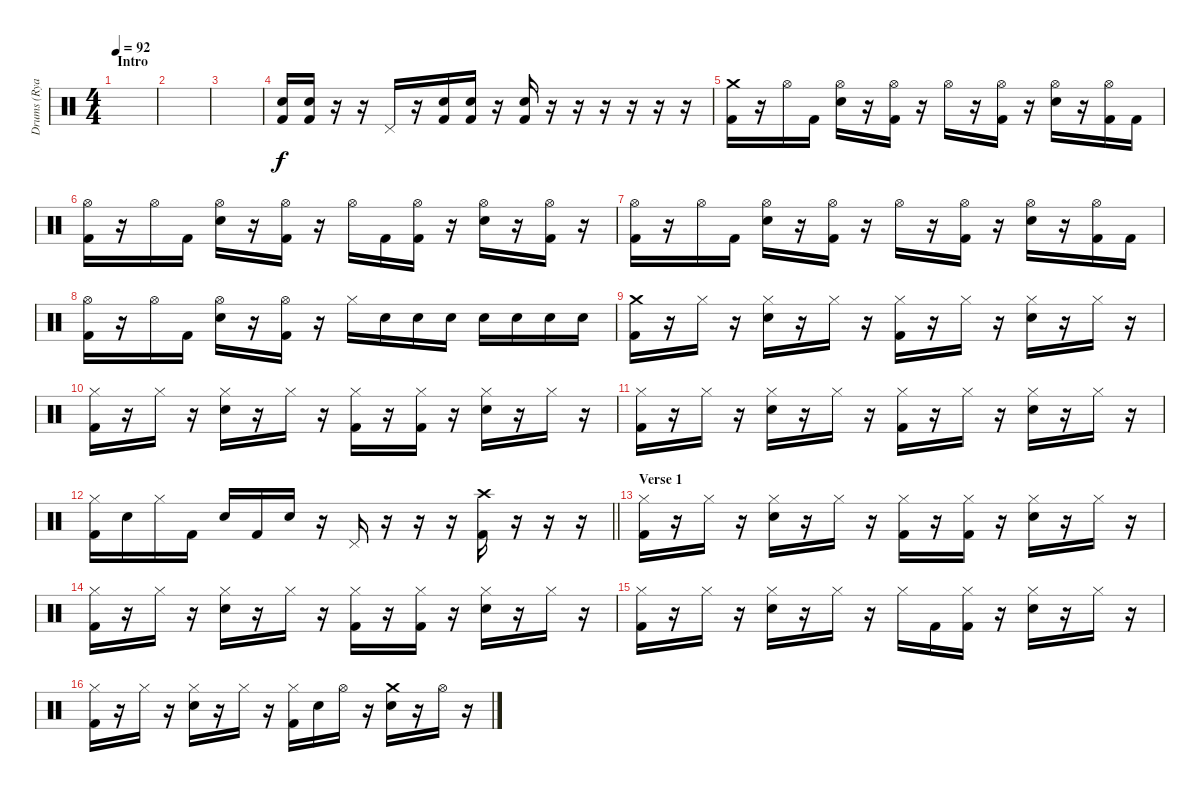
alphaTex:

\track ("Drums (Ryan Vikedal)" "Drums (Rya") {instrument percussion}
\staff {score}
\articulation defaults
\ts (4 4)
\section ("" "Intro")
\tempo 92
\clef neutral
\ks c
|
|
|
("Snare (hit) 2" "Kick (hit) 2").16 ("Snare (hit) 2" "Kick (hit) 2").16 r.16 r.16 "Pedal Hi-Hat (hit)".16 r.16 ("Snare (hit) 2" "Kick (hit) 2").16 ("Snare (hit) 2" "Kick (hit) 2").16 r.16 ("Snare (hit) 2" "Kick (hit) 2").16 r.16 r.16 r.16 r.16 r.16 r.16 |
("Crash medium (hit)" "Kick (hit) 2").16 r.16 "Hi-Hat (open)".16 "Kick (hit) 2".16 ("Hi-Hat (open)" "Snare (hit) 2").16 r.16 ("Hi-Hat (open)" "Kick (hit) 2").16 r.16 "Hi-Hat (open)".16 r.16 ("Hi-Hat (open)" "Kick (hit) 2").16 r.16 ("Hi-Hat (open)" "Snare (hit) 2").16 r.16 ("Hi-Hat (open)" "Kick (hit) 2").16 "Kick (hit) 2".16 |
("Hi-Hat (open)" "Kick (hit) 2").16 r.16 "Hi-Hat (open)".16 "Kick (hit) 2".16 ("Hi-Hat (open)" "Snare (hit) 2").16 r.16 ("Hi-Hat (open)" "Kick (hit) 2").16 r.16 "Hi-Hat (open)".16 "Kick (hit) 2".16 ("Hi-Hat (open)" "Kick (hit) 2").16 r.16 ("Hi-Hat (open)" "Snare (hit) 2").16 r.16 ("Hi-Hat (open)" "Kick (hit) 2").16 r.16 |
("Hi-Hat (open)" "Kick (hit) 2").16 r.16 "Hi-Hat (open)".16 "Kick (hit) 2".16 ("Hi-Hat (open)" "Snare (hit) 2").16 r.16 ("Hi-Hat (open)" "Kick (hit) 2").16 r.16 "Hi-Hat (open)".16 r.16 ("Hi-Hat (open)" "Kick (hit) 2").16 r.16 ("Hi-Hat (open)" "Snare (hit) 2").16 r.16 ("Hi-Hat (open)" "Kick (hit) 2").16 "Kick (hit) 2".16 |
("Hi-Hat (open)" "Kick (hit) 2").16 r.16 "Hi-Hat (open)".16 "Kick (hit) 2".16 ("Hi-Hat (open)" "Snare (hit) 2").16 r.16 ("Hi-Hat (open)" "Kick (hit) 2").16 r.16 "Hi-Hat (closed)".16 "Snare (hit) 2".16 "Snare (hit) 2".16 "Snare (hit) 2".16 "Snare (hit) 2".16 "Snare (hit) 2".16 "Snare (hit) 2".16 "Snare (hit) 2".16 |
("Crash medium (hit)" "Kick (hit) 2").16 r.16 "Hi-Hat (closed)".16 r.16 ("Hi-Hat (closed)" "Snare (hit) 2").16 r.16 "Hi-Hat (closed)".16 r.16 ("Hi-Hat (closed)" "Kick (hit) 2").16 r.16 "Hi-Hat (closed)".16 r.16 ("Hi-Hat (closed)" "Snare (hit) 2").16 r.16 "Hi-Hat (closed)".16 r.16 |
("Hi-Hat (closed)" "Kick (hit) 2").16 r.16 "Hi-Hat (closed)".16 r.16 ("Hi-Hat (closed)" "Snare (hit) 2").16 r.16 "Hi-Hat (closed)".16 r.16 ("Hi-Hat (closed)" "Kick (hit) 2").16 r.16 ("Hi-Hat (closed)" "Kick (hit) 2").16 r.16 ("Hi-Hat (closed)" "Snare (hit) 2").16 r.16 "Hi-Hat (closed)".16 r.16 |
("Hi-Hat (closed)" "Kick (hit) 2").16 r.16 "Hi-Hat (closed)".16 r.16 ("Hi-Hat (closed)" "Snare (hit) 2").16 r.16 "Hi-Hat (closed)".16 r.16 ("Hi-Hat (closed)" "Kick (hit) 2").16 r.16 "Hi-Hat (closed)".16 r.16 ("Hi-Hat (closed)" "Snare (hit) 2").16 r.16 "Hi-Hat (closed)".16 r.16 |
\barLineRight lightlight
("Hi-Hat (closed)" "Kick (hit) 2").16 "Snare (hit) 2".16 "Hi-Hat (closed)".16 "Kick (hit) 2".16 "Snare (hit) 2".16 "Kick (hit) 2".16 "Snare (hit) 2".16 r.16 "Pedal Hi-Hat (hit)".16 r.16 r.16 r.16 ("Crash high (hit)" "Kick (hit) 2").16 r.16 r.16 r.16 |
\section ("" "Verse 1")
("Hi-Hat (closed)" "Kick (hit) 2").16 r.16 "Hi-Hat (closed)".16 r.16 ("Hi-Hat (closed)" "Snare (hit) 2").16 r.16 "Hi-Hat (closed)".16 r.16 ("Hi-Hat (closed)" "Kick (hit) 2").16 r.16 ("Hi-Hat (closed)" "Kick (hit) 2").16 r.16 ("Hi-Hat (closed)" "Snare (hit) 2").16 r.16 "Hi-Hat (closed)".16 r.16 |
("Hi-Hat (closed)" "Kick (hit) 2").16 r.16 "Hi-Hat (closed)".16 r.16 ("Hi-Hat (closed)" "Snare (hit) 2").16 r.16 "Hi-Hat (closed)".16 r.16 ("Hi-Hat (closed)" "Kick (hit) 2").16 r.16 ("Hi-Hat (closed)" "Kick (hit) 2").16 r.16 ("Hi-Hat (closed)" "Snare (hit) 2").16 r.16 "Hi-Hat (closed)".16 r.16 |
("Hi-Hat (closed)" "Kick (hit) 2").16 r.16 "Hi-Hat (closed)".16 r.16 ("Hi-Hat (closed)" "Snare (hit) 2").16 r.16 "Hi-Hat (closed)".16 r.16 "Hi-Hat (closed)".16 "Kick (hit) 2".16 ("Hi-Hat (closed)" "Kick (hit) 2").16 r.16 ("Hi-Hat (closed)" "Snare (hit) 2").16 r.16 "Hi-Hat (closed)".16 r.16 |
("Hi-Hat (closed)" "Kick (hit) 2").16 r.16 "Hi-Hat (closed)".16 r.16 ("Hi-Hat (closed)" "Snare (hit) 2").16 r.16 "Hi-Hat (closed)".16 r.16 ("Hi-Hat (closed)" "Kick (hit) 2").16 "Snare (hit) 2".16 "Hi-Hat (open)".16 r.16 ("Crash medium (hit)" "Snare (hit) 2").16 r.16 "Hi-Hat (open)".16 r.16
